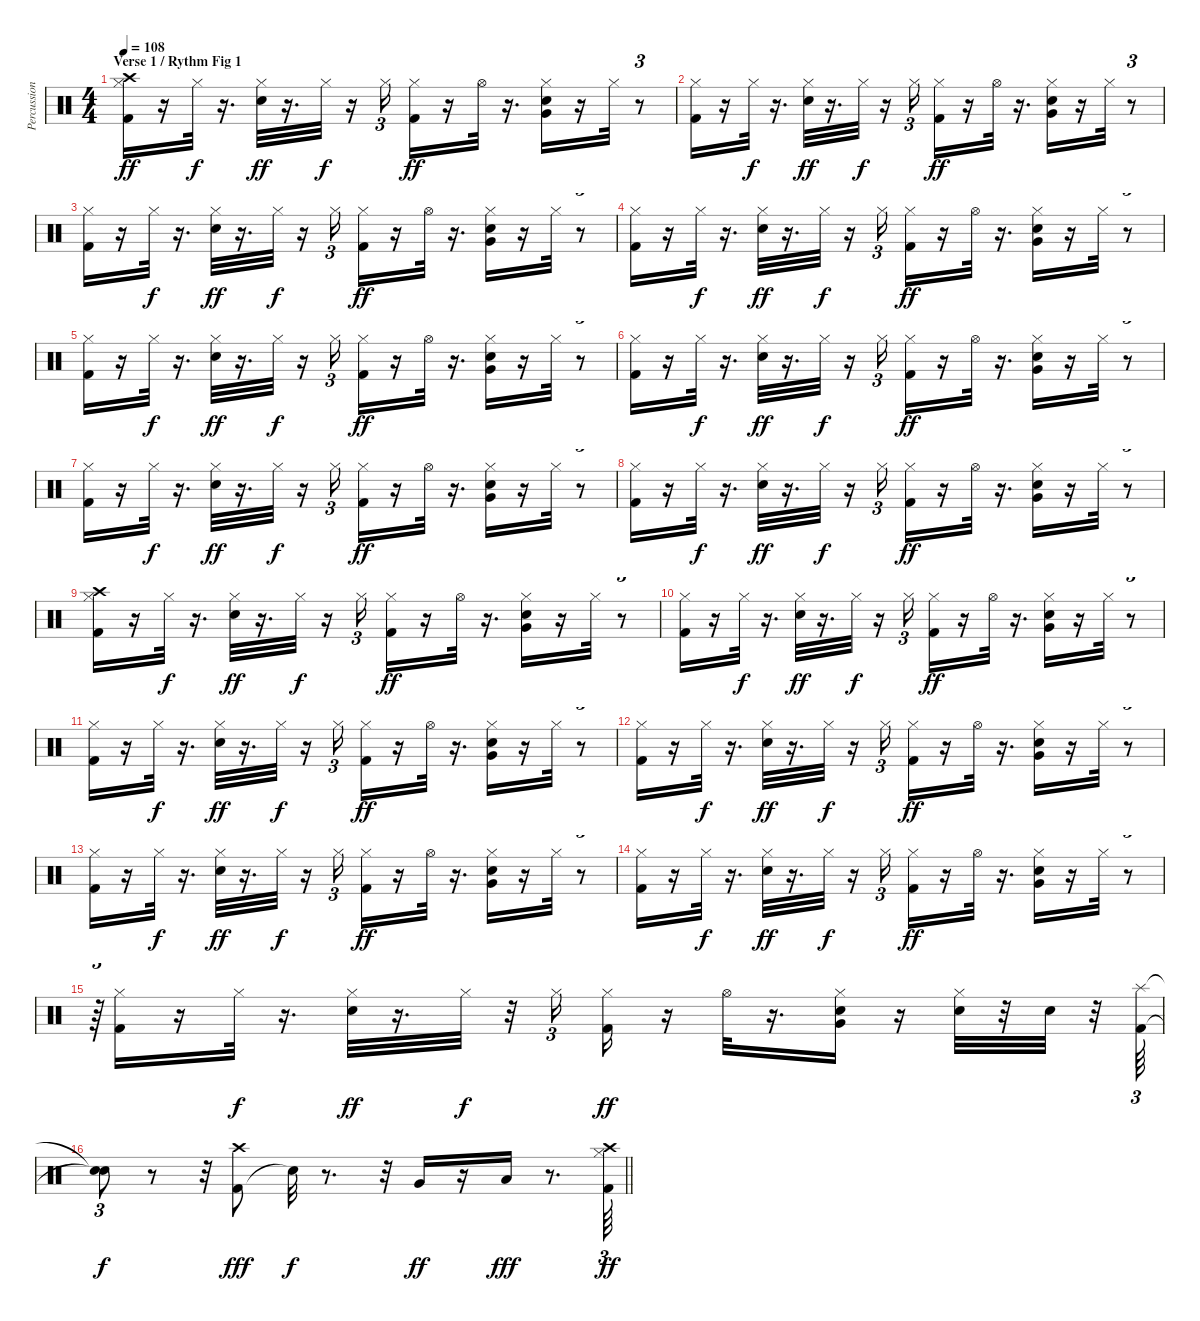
\track ("Percussion" "Percussion") {instrument percussion}
\staff {score}
\articulation defaults
\ts (4 4)
\section ("" "Verse 1 / Rythm Fig 1")
\tempo 108
\clef neutral
\ks c
("Kick (hit) 2" "Hi-Hat (closed)" "Crash high (hit)").16{dy ff volume 12} r.16 "Hi-Hat (closed)".32{dy f} r.16{d} ("Snare (hit) 2" "Hi-Hat (closed)").32{dy ff} r.16{d} "Hi-Hat (closed)".32{dy f} r.16 "Hi-Hat (closed)".16{tu (3 2)} ("Hi-Hat (closed)" "Kick (hit) 2").16{dy ff} r.16 "Hi-Hat (open)".32 r.16{d} ("Snare (hit) 2" "Very Low Tom (hit)" "Hi-Hat (closed)").16 r.16 "Hi-Hat (closed)".32 r.8{tu (3 2)} |
("Kick (hit) 2" "Hi-Hat (closed)").16{volume 12} r.16 "Hi-Hat (closed)".32{dy f} r.16{d} ("Snare (hit) 2" "Hi-Hat (closed)").32{dy ff} r.16{d} "Hi-Hat (closed)".32{dy f} r.16 "Hi-Hat (closed)".16{tu (3 2)} ("Hi-Hat (closed)" "Kick (hit) 2").16{dy ff} r.16 "Hi-Hat (open)".32 r.16{d} ("Snare (hit) 2" "Very Low Tom (hit)" "Hi-Hat (closed)").16 r.16 "Hi-Hat (closed)".32 r.8{tu (3 2)} |
("Kick (hit) 2" "Hi-Hat (closed)").16{volume 12} r.16 "Hi-Hat (closed)".32{dy f} r.16{d} ("Snare (hit) 2" "Hi-Hat (closed)").32{dy ff} r.16{d} "Hi-Hat (closed)".32{dy f} r.16 "Hi-Hat (closed)".16{tu (3 2)} ("Hi-Hat (closed)" "Kick (hit) 2").16{dy ff} r.16 "Hi-Hat (open)".32 r.16{d} ("Snare (hit) 2" "Very Low Tom (hit)" "Hi-Hat (closed)").16 r.16 "Hi-Hat (closed)".32 r.8{tu (3 2)} |
("Kick (hit) 2" "Hi-Hat (closed)").16{volume 12} r.16 "Hi-Hat (closed)".32{dy f} r.16{d} ("Snare (hit) 2" "Hi-Hat (closed)").32{dy ff} r.16{d} "Hi-Hat (closed)".32{dy f} r.16 "Hi-Hat (closed)".16{tu (3 2)} ("Hi-Hat (closed)" "Kick (hit) 2").16{dy ff} r.16 "Hi-Hat (open)".32 r.16{d} ("Snare (hit) 2" "Very Low Tom (hit)" "Hi-Hat (closed)").16 r.16 "Hi-Hat (closed)".32 r.8{tu (3 2)} |
("Kick (hit) 2" "Hi-Hat (closed)").16{volume 12} r.16 "Hi-Hat (closed)".32{dy f} r.16{d} ("Snare (hit) 2" "Hi-Hat (closed)").32{dy ff} r.16{d} "Hi-Hat (closed)".32{dy f} r.16 "Hi-Hat (closed)".16{tu (3 2)} ("Hi-Hat (closed)" "Kick (hit) 2").16{dy ff} r.16 "Hi-Hat (open)".32 r.16{d} ("Snare (hit) 2" "Very Low Tom (hit)" "Hi-Hat (closed)").16 r.16 "Hi-Hat (closed)".32 r.8{tu (3 2)} |
("Kick (hit) 2" "Hi-Hat (closed)").16{volume 12} r.16 "Hi-Hat (closed)".32{dy f} r.16{d} ("Snare (hit) 2" "Hi-Hat (closed)").32{dy ff} r.16{d} "Hi-Hat (closed)".32{dy f} r.16 "Hi-Hat (closed)".16{tu (3 2)} ("Hi-Hat (closed)" "Kick (hit) 2").16{dy ff} r.16 "Hi-Hat (open)".32 r.16{d} ("Snare (hit) 2" "Very Low Tom (hit)" "Hi-Hat (closed)").16 r.16 "Hi-Hat (closed)".32 r.8{tu (3 2)} |
("Kick (hit) 2" "Hi-Hat (closed)").16{volume 12} r.16 "Hi-Hat (closed)".32{dy f} r.16{d} ("Snare (hit) 2" "Hi-Hat (closed)").32{dy ff} r.16{d} "Hi-Hat (closed)".32{dy f} r.16 "Hi-Hat (closed)".16{tu (3 2)} ("Hi-Hat (closed)" "Kick (hit) 2").16{dy ff} r.16 "Hi-Hat (open)".32 r.16{d} ("Snare (hit) 2" "Very Low Tom (hit)" "Hi-Hat (closed)").16 r.16 "Hi-Hat (closed)".32 r.8{tu (3 2)} |
("Kick (hit) 2" "Hi-Hat (closed)").16{volume 12} r.16 "Hi-Hat (closed)".32{dy f} r.16{d} ("Snare (hit) 2" "Hi-Hat (closed)").32{dy ff} r.16{d} "Hi-Hat (closed)".32{dy f} r.16 "Hi-Hat (closed)".16{tu (3 2)} ("Hi-Hat (closed)" "Kick (hit) 2").16{dy ff} r.16 "Hi-Hat (open)".32 r.16{d} ("Snare (hit) 2" "Very Low Tom (hit)" "Hi-Hat (closed)").16 r.16 "Hi-Hat (closed)".32 r.8{tu (3 2)} |
("Kick (hit) 2" "Hi-Hat (closed)" "Crash high (hit)").16{volume 12} r.16 "Hi-Hat (closed)".32{dy f} r.16{d} ("Snare (hit) 2" "Hi-Hat (closed)").32{dy ff} r.16{d} "Hi-Hat (closed)".32{dy f} r.16 "Hi-Hat (closed)".16{tu (3 2)} ("Hi-Hat (closed)" "Kick (hit) 2").16{dy ff} r.16 "Hi-Hat (open)".32 r.16{d} ("Snare (hit) 2" "Very Low Tom (hit)" "Hi-Hat (closed)").16 r.16 "Hi-Hat (closed)".32 r.8{tu (3 2)} |
("Kick (hit) 2" "Hi-Hat (closed)").16{volume 12} r.16 "Hi-Hat (closed)".32{dy f} r.16{d} ("Snare (hit) 2" "Hi-Hat (closed)").32{dy ff} r.16{d} "Hi-Hat (closed)".32{dy f} r.16 "Hi-Hat (closed)".16{tu (3 2)} ("Hi-Hat (closed)" "Kick (hit) 2").16{dy ff} r.16 "Hi-Hat (open)".32 r.16{d} ("Snare (hit) 2" "Very Low Tom (hit)" "Hi-Hat (closed)").16 r.16 "Hi-Hat (closed)".32 r.8{tu (3 2)} |
("Kick (hit) 2" "Hi-Hat (closed)").16{volume 12} r.16 "Hi-Hat (closed)".32{dy f} r.16{d} ("Snare (hit) 2" "Hi-Hat (closed)").32{dy ff} r.16{d} "Hi-Hat (closed)".32{dy f} r.16 "Hi-Hat (closed)".16{tu (3 2)} ("Hi-Hat (closed)" "Kick (hit) 2").16{dy ff} r.16 "Hi-Hat (open)".32 r.16{d} ("Snare (hit) 2" "Very Low Tom (hit)" "Hi-Hat (closed)").16 r.16 "Hi-Hat (closed)".32 r.8{tu (3 2)} |
("Kick (hit) 2" "Hi-Hat (closed)").16{volume 12} r.16 "Hi-Hat (closed)".32{dy f} r.16{d} ("Snare (hit) 2" "Hi-Hat (closed)").32{dy ff} r.16{d} "Hi-Hat (closed)".32{dy f} r.16 "Hi-Hat (closed)".16{tu (3 2)} ("Hi-Hat (closed)" "Kick (hit) 2").16{dy ff} r.16 "Hi-Hat (open)".32 r.16{d} ("Snare (hit) 2" "Very Low Tom (hit)" "Hi-Hat (closed)").16 r.16 "Hi-Hat (closed)".32 r.8{tu (3 2)} |
("Kick (hit) 2" "Hi-Hat (closed)").16{volume 12} r.16 "Hi-Hat (closed)".32{dy f} r.16{d} ("Snare (hit) 2" "Hi-Hat (closed)").32{dy ff} r.16{d} "Hi-Hat (closed)".32{dy f} r.16 "Hi-Hat (closed)".16{tu (3 2)} ("Hi-Hat (closed)" "Kick (hit) 2").16{dy ff} r.16 "Hi-Hat (open)".32 r.16{d} ("Snare (hit) 2" "Very Low Tom (hit)" "Hi-Hat (closed)").16 r.16 "Hi-Hat (closed)".32 r.8{tu (3 2)} |
("Kick (hit) 2" "Hi-Hat (closed)").16{volume 12} r.16 "Hi-Hat (closed)".32{dy f} r.16{d} ("Snare (hit) 2" "Hi-Hat (closed)").32{dy ff} r.16{d} "Hi-Hat (closed)".32{dy f} r.16 "Hi-Hat (closed)".16{tu (3 2)} ("Hi-Hat (closed)" "Kick (hit) 2").16{dy ff} r.16 "Hi-Hat (open)".32 r.16{d} ("Snare (hit) 2" "Very Low Tom (hit)" "Hi-Hat (closed)").16 r.16 "Hi-Hat (closed)".32 r.8{tu (3 2)} |
r.64{tu (3 2)} ("Kick (hit) 2" "Hi-Hat (closed)").16 r.16 "Hi-Hat (closed)".32{dy f} r.16{d} ("Snare (hit) 2" "Hi-Hat (closed)").32{dy ff} r.16{d} "Hi-Hat (closed)".32{dy f} r.32 "Hi-Hat (closed)".16{tu (3 2)} ("Hi-Hat (closed)" "Kick (hit) 2").16{dy ff} r.16 "Hi-Hat (open)".32 r.16{d} ("Snare (hit) 2" "Very Low Tom (hit)" "Hi-Hat (closed)").16 r.16 ("Snare (hit) 2" "Hi-Hat (closed)").32 r.32 "Snare (hit) 2".32 r.32 ("Kick (hit) 2" "Splash (hit)").64{tu (3 2)} |
\barLineRight lightlight
("Snare (hit)"{t} "Snare (hit)"{t}).8{tu (3 2) dy f} r.8 r.32 ("Kick (hit) 2" "Crash high (hit)").8{dy fff} "Snare (hit)"{t}.32{dy f} r.8{d} r.32 "Very Low Tom (hit)".16{dy ff} r.16 "Low Floor Tom (hit)".16{dy fff} r.8{d} ("Kick (hit) 2" "Hi-Hat (closed)" "Crash high (hit)").64{tu (3 2) dy ff volume 12}
